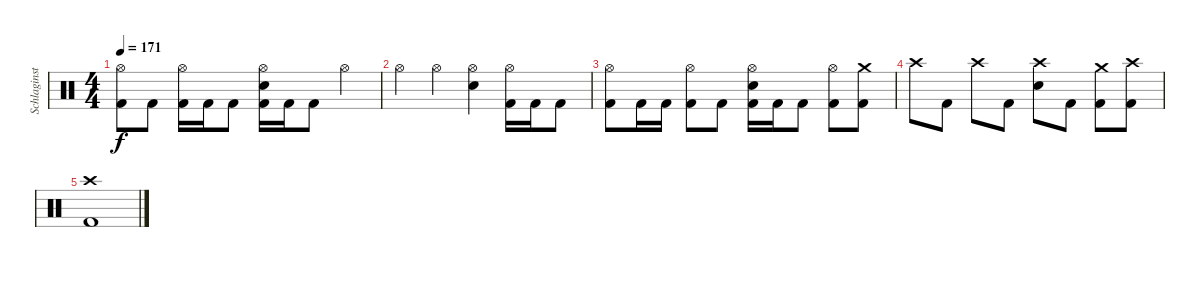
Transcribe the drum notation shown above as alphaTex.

\track ("Schlaginstrumente - Auswahl" "Schlaginst") {instrument percussion}
\staff {score}
\articulation defaults
\ts (4 4)
\tempo 171
\clef neutral
\ks c
("Hi-Hat (open)" "Kick (hit) 2").8{dy f} "Kick (hit) 2".8 ("Hi-Hat (open)" "Kick (hit) 2").16 "Kick (hit) 2".16 "Kick (hit) 2".8 ("Hi-Hat (open)" "Snare (hit) 2" "Kick (hit) 2").16 "Kick (hit) 2".16 "Kick (hit) 2".8 "Hi-Hat (open)".4 |
"Hi-Hat (open)".4 "Hi-Hat (open)".4 ("Hi-Hat (open)" "Snare (hit) 2").4 ("Hi-Hat (open)" "Kick (hit) 2").16 "Kick (hit) 2".16 "Kick (hit) 2".8 |
("Hi-Hat (open)" "Kick (hit) 2").8 "Kick (hit) 2".16 "Kick (hit) 2".16 ("Hi-Hat (open)" "Kick (hit) 2").8 "Kick (hit) 2".8 ("Hi-Hat (open)" "Snare (hit) 2" "Kick (hit) 2").16 "Kick (hit) 2".16 "Kick (hit) 2".8 ("Hi-Hat (open)" "Kick (hit) 2").8 ("Crash medium (hit)" "Kick (hit) 2").8 |
"Crash high (hit)".8 "Kick (hit) 2".8 "Crash high (hit)".8 "Kick (hit) 2".8 ("Crash high (hit)" "Snare (hit) 2").8 "Kick (hit) 2".8 ("Crash medium (hit)" "Kick (hit) 2").8 ("Crash high (hit)" "Kick (hit) 2").8 |
("Crash high (hit)" "Kick (hit) 2").1
